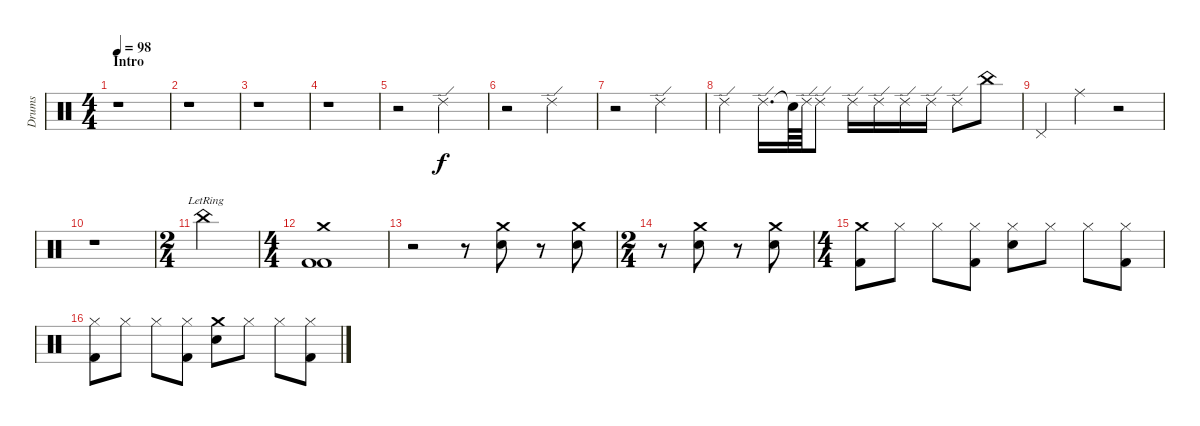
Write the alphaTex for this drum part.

\track ("Drums" "Drums") {instrument percussion}
\staff {score}
\articulation defaults
\ts (4 4)
\section ("" "Intro")
\tempo 98
\clef neutral
\ks c
r.1{dy f} |
r.1 |
r.1 |
r.1 |
r.2 "Ride (edge) 2".2 |
r.2 "Ride (edge) 2".2 |
r.2 "Ride (edge) 2".2 |
"Ride (edge) 2".4 "Ride (edge) 2".16{d} "Snare (hit)"{t}.64 "Ride (edge) 2".64 "Ride (edge) 2".8 "Ride (edge) 2".16 "Ride (edge) 2".16 "Ride (edge) 2".16 "Ride (edge) 2".16 "Ride (edge) 2".8 "China (hit)".8 |
"Pedal Hi-Hat (hit)".4 "Ride (middle)".4 r.2 |
r.1 |
\ts (2 4)
"China (hit)"{lr}.2 |
\ts (4 4)
("Crash medium (hit)" "Kick (hit) 2" "Kick (hit) 2").1 |
r.2 r.8 ("Snare (hit) 2" "Crash medium (hit)").8 r.8 ("Snare (hit) 2" "Crash medium (hit)").8 |
\ts (2 4)
r.8 ("Snare (hit) 2" "Crash medium (hit)").8 r.8 ("Snare (hit) 2" "Crash medium (hit)").8 |
\ts (4 4)
("Kick (hit) 2" "Crash medium (hit)").8 "Hi-Hat (closed)".8 "Hi-Hat (closed)".8 ("Kick (hit) 2" "Hi-Hat (closed)").8 ("Snare (hit) 2" "Hi-Hat (closed)").8 "Hi-Hat (closed)".8 "Hi-Hat (closed)".8 ("Kick (hit) 2" "Hi-Hat (closed)").8 |
("Kick (hit) 2" "Hi-Hat (closed)").8 "Hi-Hat (closed)".8 "Hi-Hat (closed)".8 ("Kick (hit) 2" "Hi-Hat (closed)").8 ("Crash medium (hit)" "Snare (hit) 2").8 "Hi-Hat (closed)".8 "Hi-Hat (closed)".8 ("Kick (hit) 2" "Hi-Hat (closed)").8
